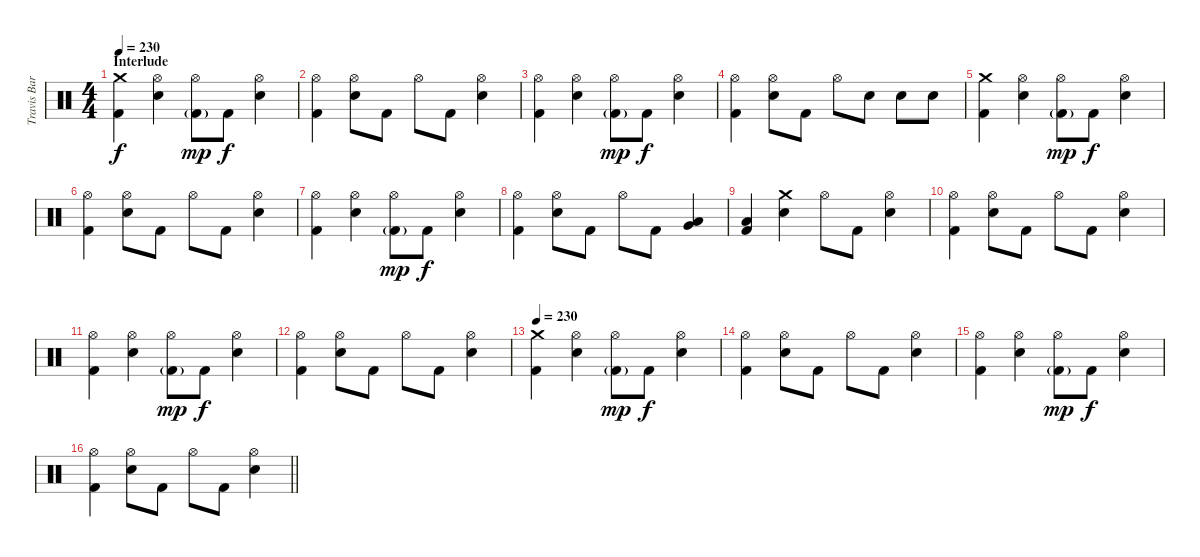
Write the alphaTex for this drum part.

\track ("Travis Barker - Drums" "Travis Bar") {instrument percussion}
\staff {score}
\articulation defaults
\ts (4 4)
\section ("" "Interlude")
\tempo 230
\clef neutral
\ks c
("Crash medium (hit)" "Kick (hit) 2").4{dy f} ("Hi-Hat (open)" "Electric Snare (hit)").4 ("Hi-Hat (open)" "Kick (hit) 2"{g}).8{dy mp} "Kick (hit) 2".8{dy f} ("Hi-Hat (open)" "Electric Snare (hit)").4 |
("Hi-Hat (open)" "Kick (hit) 2").4 ("Hi-Hat (open)" "Electric Snare (hit)").8 "Kick (hit) 2".8 "Hi-Hat (open)".8 "Kick (hit) 2".8 ("Hi-Hat (open)" "Electric Snare (hit)").4 |
("Hi-Hat (open)" "Kick (hit) 2").4 ("Hi-Hat (open)" "Electric Snare (hit)").4 ("Hi-Hat (open)" "Kick (hit) 2"{g}).8{dy mp} "Kick (hit) 2".8{dy f} ("Hi-Hat (open)" "Electric Snare (hit)").4 |
("Hi-Hat (open)" "Kick (hit) 2").4 ("Hi-Hat (open)" "Electric Snare (hit)").8 "Kick (hit) 2".8 "Hi-Hat (open)".8 "Electric Snare (hit)".8 "Electric Snare (hit)".8 "Electric Snare (hit)".8 |
("Crash medium (hit)" "Kick (hit) 2").4 ("Hi-Hat (open)" "Electric Snare (hit)").4 ("Hi-Hat (open)" "Kick (hit) 2"{g}).8{dy mp} "Kick (hit) 2".8{dy f} ("Hi-Hat (open)" "Electric Snare (hit)").4 |
("Hi-Hat (open)" "Kick (hit) 2").4 ("Hi-Hat (open)" "Electric Snare (hit)").8 "Kick (hit) 2".8 "Hi-Hat (open)".8 "Kick (hit) 2".8 ("Hi-Hat (open)" "Electric Snare (hit)").4 |
("Hi-Hat (open)" "Kick (hit) 2").4 ("Hi-Hat (open)" "Electric Snare (hit)").4 ("Hi-Hat (open)" "Kick (hit) 2"{g}).8{dy mp} "Kick (hit) 2".8{dy f} ("Hi-Hat (open)" "Electric Snare (hit)").4 |
("Hi-Hat (open)" "Kick (hit) 2").4 ("Hi-Hat (open)" "Electric Snare (hit)").8 "Kick (hit) 2".8 "Hi-Hat (open)".8 "Kick (hit) 2".8 ("Very Low Tom (hit)" "Low Tom (hit)").4 |
("Low Floor Tom (hit)" "Kick (hit) 2").4 ("Crash medium (hit)" "Electric Snare (hit)").4 "Hi-Hat (open)".8 "Kick (hit) 2".8 ("Hi-Hat (open)" "Electric Snare (hit)").4 |
("Hi-Hat (open)" "Kick (hit) 2").4 ("Hi-Hat (open)" "Electric Snare (hit)").8 "Kick (hit) 2".8 "Hi-Hat (open)".8 "Kick (hit) 2".8 ("Hi-Hat (open)" "Electric Snare (hit)").4 |
("Hi-Hat (open)" "Kick (hit) 2").4 ("Hi-Hat (open)" "Electric Snare (hit)").4 ("Hi-Hat (open)" "Kick (hit) 2"{g}).8{dy mp} "Kick (hit) 2".8{dy f} ("Hi-Hat (open)" "Electric Snare (hit)").4 |
("Hi-Hat (open)" "Kick (hit) 2").4 ("Hi-Hat (open)" "Electric Snare (hit)").8 "Kick (hit) 2".8 "Hi-Hat (open)".8 "Kick (hit) 2".8 ("Hi-Hat (open)" "Electric Snare (hit)").4 |
\tempo 230
("Crash medium (hit)" "Kick (hit) 2").4 ("Hi-Hat (open)" "Electric Snare (hit)").4 ("Hi-Hat (open)" "Kick (hit) 2"{g}).8{dy mp} "Kick (hit) 2".8{dy f} ("Hi-Hat (open)" "Electric Snare (hit)").4 |
("Hi-Hat (open)" "Kick (hit) 2").4 ("Hi-Hat (open)" "Electric Snare (hit)").8 "Kick (hit) 2".8 "Hi-Hat (open)".8 "Kick (hit) 2".8 ("Hi-Hat (open)" "Electric Snare (hit)").4 |
("Hi-Hat (open)" "Kick (hit) 2").4 ("Hi-Hat (open)" "Electric Snare (hit)").4 ("Hi-Hat (open)" "Kick (hit) 2"{g}).8{dy mp} "Kick (hit) 2".8{dy f} ("Hi-Hat (open)" "Electric Snare (hit)").4 |
\barLineRight lightlight
("Hi-Hat (open)" "Kick (hit) 2").4 ("Hi-Hat (open)" "Electric Snare (hit)").8 "Kick (hit) 2".8 "Hi-Hat (open)".8 "Kick (hit) 2".8 ("Hi-Hat (open)" "Electric Snare (hit)").4
